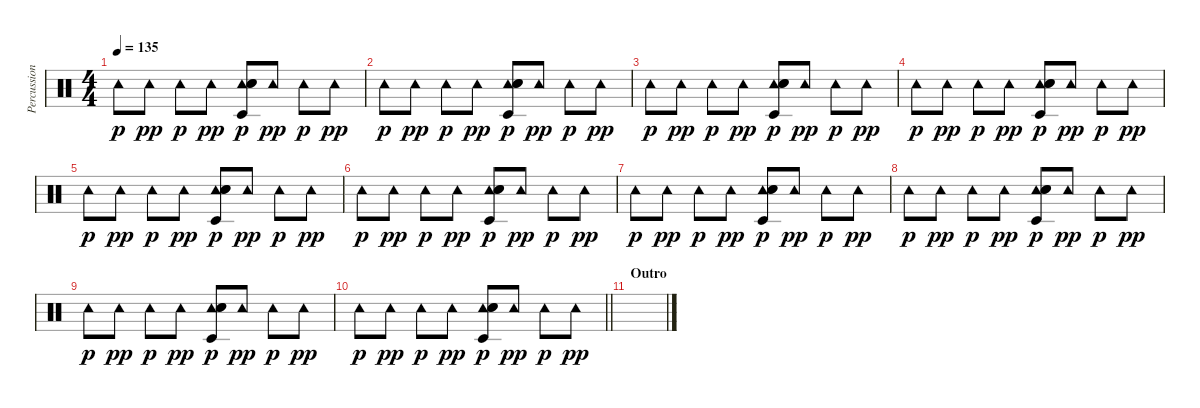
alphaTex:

\track ("Percussion" "Percussion") {instrument percussion}
\staff {score}
\articulation defaults
\ts (4 4)
\tempo 135
\clef neutral
\ks c "Tambourine (hit)".8{dy p} "Tambourine (hit)".8{dy pp} "Tambourine (hit)".8{dy p} "Tambourine (hit)".8{dy pp}
("Tambourine (hit)" "Hand Clap (hit)" "Snare (hit) 2" "Timbale low (hit)").8{dy p} "Tambourine (hit)".8{dy pp} "Tambourine (hit)".8{dy p} "Tambourine (hit)".8{dy pp} |
"Tambourine (hit)".8{dy p} "Tambourine (hit)".8{dy pp} "Tambourine (hit)".8{dy p} "Tambourine (hit)".8{dy pp} ("Tambourine (hit)" "Hand Clap (hit)" "Snare (hit) 2" "Timbale low (hit)").8{dy p} "Tambourine (hit)".8{dy pp} "Tambourine (hit)".8{dy p} "Tambourine (hit)".8{dy pp} |
"Tambourine (hit)".8{dy p} "Tambourine (hit)".8{dy pp} "Tambourine (hit)".8{dy p} "Tambourine (hit)".8{dy pp} ("Tambourine (hit)" "Hand Clap (hit)" "Snare (hit) 2" "Timbale low (hit)").8{dy p} "Tambourine (hit)".8{dy pp} "Tambourine (hit)".8{dy p} "Tambourine (hit)".8{dy pp} |
"Tambourine (hit)".8{dy p} "Tambourine (hit)".8{dy pp} "Tambourine (hit)".8{dy p} "Tambourine (hit)".8{dy pp} ("Tambourine (hit)" "Hand Clap (hit)" "Snare (hit) 2" "Timbale low (hit)").8{dy p} "Tambourine (hit)".8{dy pp} "Tambourine (hit)".8{dy p} "Tambourine (hit)".8{dy pp} |
"Tambourine (hit)".8{dy p} "Tambourine (hit)".8{dy pp} "Tambourine (hit)".8{dy p} "Tambourine (hit)".8{dy pp} ("Tambourine (hit)" "Hand Clap (hit)" "Snare (hit) 2" "Timbale low (hit)").8{dy p} "Tambourine (hit)".8{dy pp} "Tambourine (hit)".8{dy p} "Tambourine (hit)".8{dy pp} |
"Tambourine (hit)".8{dy p} "Tambourine (hit)".8{dy pp} "Tambourine (hit)".8{dy p} "Tambourine (hit)".8{dy pp} ("Tambourine (hit)" "Hand Clap (hit)" "Snare (hit) 2" "Timbale low (hit)").8{dy p} "Tambourine (hit)".8{dy pp} "Tambourine (hit)".8{dy p} "Tambourine (hit)".8{dy pp} |
"Tambourine (hit)".8{dy p} "Tambourine (hit)".8{dy pp} "Tambourine (hit)".8{dy p} "Tambourine (hit)".8{dy pp} ("Tambourine (hit)" "Hand Clap (hit)" "Snare (hit) 2" "Timbale low (hit)").8{dy p} "Tambourine (hit)".8{dy pp} "Tambourine (hit)".8{dy p} "Tambourine (hit)".8{dy pp} |
"Tambourine (hit)".8{dy p} "Tambourine (hit)".8{dy pp} "Tambourine (hit)".8{dy p} "Tambourine (hit)".8{dy pp} ("Tambourine (hit)" "Hand Clap (hit)" "Snare (hit) 2" "Timbale low (hit)").8{dy p} "Tambourine (hit)".8{dy pp} "Tambourine (hit)".8{dy p} "Tambourine (hit)".8{dy pp} |
"Tambourine (hit)".8{dy p} "Tambourine (hit)".8{dy pp} "Tambourine (hit)".8{dy p} "Tambourine (hit)".8{dy pp} ("Tambourine (hit)" "Hand Clap (hit)" "Snare (hit) 2" "Timbale low (hit)").8{dy p} "Tambourine (hit)".8{dy pp} "Tambourine (hit)".8{dy p} "Tambourine (hit)".8{dy pp} |
\barLineRight lightlight "Tambourine (hit)".8{dy p} "Tambourine (hit)".8{dy pp} "Tambourine (hit)".8{dy p} "Tambourine (hit)".8{dy pp}
("Tambourine (hit)" "Hand Clap (hit)" "Snare (hit) 2" "Timbale low (hit)").8{dy p} "Tambourine (hit)".8{dy pp} "Tambourine (hit)".8{dy p} "Tambourine (hit)".8{dy pp} |
\section ("" "Outro")
